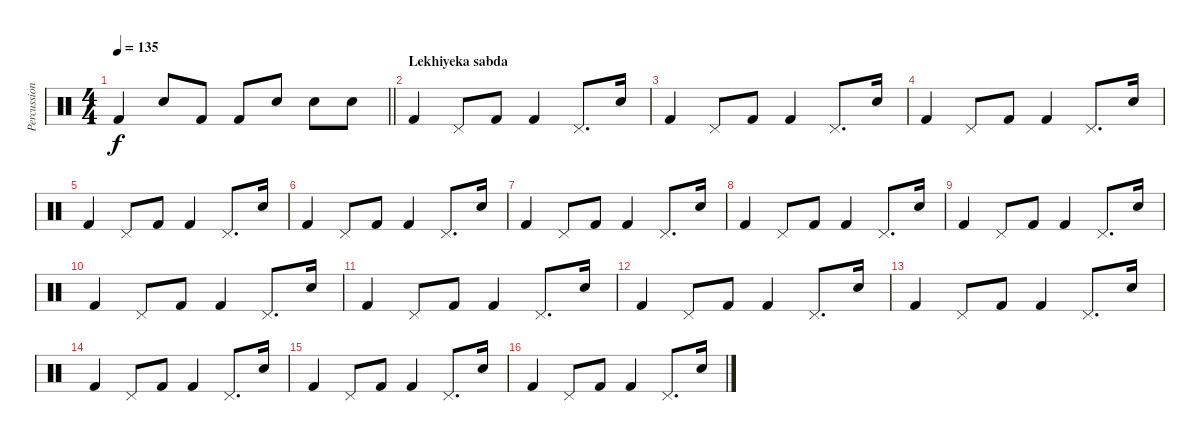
\track ("Percussion" "Percussion") {instrument percussion}
\staff {score}
\articulation defaults
\ts (4 4)
\tempo 135
\clef neutral
\barLineRight lightlight
\ks c "Kick (hit) 2".4{dy f} "Electric Snare (hit)".8 "Kick (hit) 2".8 "Kick (hit) 2".8 "Electric Snare (hit)".8 "Electric Snare (hit)".8 "Electric Snare (hit)".8
|
\section ("" "Lekhiyeka sabda ")
"Kick (hit) 2".4 "Pedal Hi-Hat (hit)".8 "Kick (hit) 2".8 "Kick (hit) 2".4 "Pedal Hi-Hat (hit)".8{d} "Snare (hit)".16 |
"Kick (hit) 2".4 "Pedal Hi-Hat (hit)".8 "Kick (hit) 2".8 "Kick (hit) 2".4 "Pedal Hi-Hat (hit)".8{d} "Snare (hit)".16 |
"Kick (hit) 2".4 "Pedal Hi-Hat (hit)".8 "Kick (hit) 2".8 "Kick (hit) 2".4 "Pedal Hi-Hat (hit)".8{d} "Snare (hit)".16 |
"Kick (hit) 2".4 "Pedal Hi-Hat (hit)".8 "Kick (hit) 2".8 "Kick (hit) 2".4 "Pedal Hi-Hat (hit)".8{d} "Snare (hit)".16 |
"Kick (hit) 2".4 "Pedal Hi-Hat (hit)".8 "Kick (hit) 2".8 "Kick (hit) 2".4 "Pedal Hi-Hat (hit)".8{d} "Snare (hit)".16 |
"Kick (hit) 2".4 "Pedal Hi-Hat (hit)".8 "Kick (hit) 2".8 "Kick (hit) 2".4 "Pedal Hi-Hat (hit)".8{d} "Snare (hit)".16 |
"Kick (hit) 2".4 "Pedal Hi-Hat (hit)".8 "Kick (hit) 2".8 "Kick (hit) 2".4 "Pedal Hi-Hat (hit)".8{d} "Snare (hit)".16 |
"Kick (hit) 2".4 "Pedal Hi-Hat (hit)".8 "Kick (hit) 2".8 "Kick (hit) 2".4 "Pedal Hi-Hat (hit)".8{d} "Snare (hit)".16 |
"Kick (hit) 2".4 "Pedal Hi-Hat (hit)".8 "Kick (hit) 2".8 "Kick (hit) 2".4 "Pedal Hi-Hat (hit)".8{d} "Snare (hit)".16 |
"Kick (hit) 2".4 "Pedal Hi-Hat (hit)".8 "Kick (hit) 2".8 "Kick (hit) 2".4 "Pedal Hi-Hat (hit)".8{d} "Snare (hit)".16 |
"Kick (hit) 2".4 "Pedal Hi-Hat (hit)".8 "Kick (hit) 2".8 "Kick (hit) 2".4 "Pedal Hi-Hat (hit)".8{d} "Snare (hit)".16 |
"Kick (hit) 2".4 "Pedal Hi-Hat (hit)".8 "Kick (hit) 2".8 "Kick (hit) 2".4 "Pedal Hi-Hat (hit)".8{d} "Snare (hit)".16 |
"Kick (hit) 2".4 "Pedal Hi-Hat (hit)".8 "Kick (hit) 2".8 "Kick (hit) 2".4 "Pedal Hi-Hat (hit)".8{d} "Snare (hit)".16 |
"Kick (hit) 2".4 "Pedal Hi-Hat (hit)".8 "Kick (hit) 2".8 "Kick (hit) 2".4 "Pedal Hi-Hat (hit)".8{d} "Snare (hit)".16 |
"Kick (hit) 2".4 "Pedal Hi-Hat (hit)".8 "Kick (hit) 2".8 "Kick (hit) 2".4 "Pedal Hi-Hat (hit)".8{d} "Snare (hit)".16
